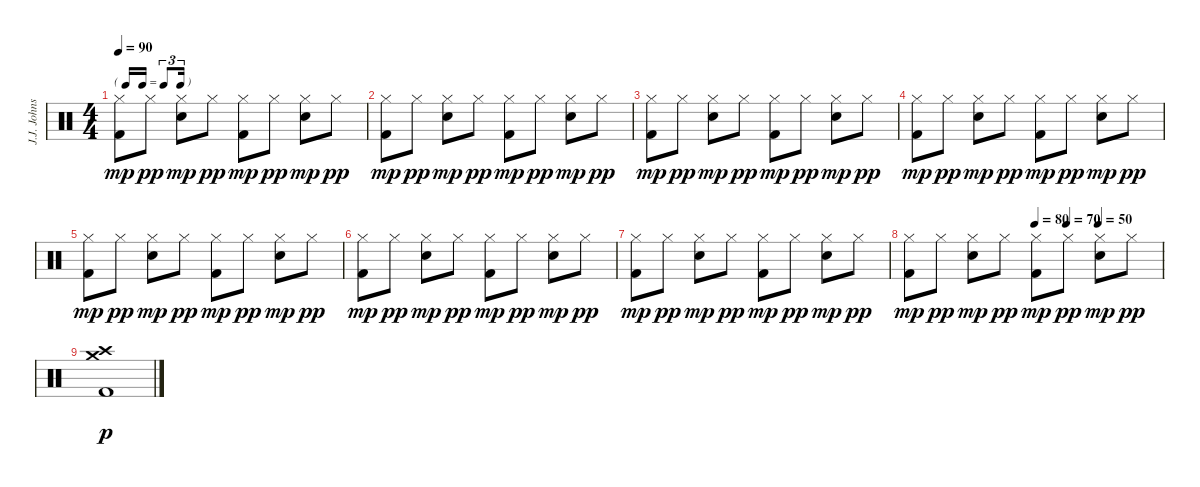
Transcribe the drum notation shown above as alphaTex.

\track ("J.J. Johnson" "J.J. Johns") {instrument percussion}
\staff {score}
\articulation defaults
\ts (4 4)
\tf triplet16th
\tempo 90
\clef neutral
\ks c
("Hi-Hat (closed)" "Kick (hit) 2").8{dy mp} "Hi-Hat (closed)".8{dy pp} ("Hi-Hat (closed)" "Electric Snare (hit)").8{dy mp} "Hi-Hat (closed)".8{dy pp} ("Hi-Hat (closed)" "Kick (hit) 2").8{dy mp} "Hi-Hat (closed)".8{dy pp} ("Hi-Hat (closed)" "Electric Snare (hit)").8{dy mp} "Hi-Hat (closed)".8{dy pp} |
("Hi-Hat (closed)" "Kick (hit) 2").8{dy mp} "Hi-Hat (closed)".8{dy pp} ("Hi-Hat (closed)" "Electric Snare (hit)").8{dy mp} "Hi-Hat (closed)".8{dy pp} ("Hi-Hat (closed)" "Kick (hit) 2").8{dy mp} "Hi-Hat (closed)".8{dy pp} ("Hi-Hat (closed)" "Electric Snare (hit)").8{dy mp} "Hi-Hat (closed)".8{dy pp} |
("Hi-Hat (closed)" "Kick (hit) 2").8{dy mp} "Hi-Hat (closed)".8{dy pp} ("Hi-Hat (closed)" "Electric Snare (hit)").8{dy mp} "Hi-Hat (closed)".8{dy pp} ("Hi-Hat (closed)" "Kick (hit) 2").8{dy mp} "Hi-Hat (closed)".8{dy pp} ("Hi-Hat (closed)" "Electric Snare (hit)").8{dy mp} "Hi-Hat (closed)".8{dy pp} |
("Hi-Hat (closed)" "Kick (hit) 2").8{dy mp} "Hi-Hat (closed)".8{dy pp} ("Hi-Hat (closed)" "Electric Snare (hit)").8{dy mp} "Hi-Hat (closed)".8{dy pp} ("Hi-Hat (closed)" "Kick (hit) 2").8{dy mp} "Hi-Hat (closed)".8{dy pp} ("Hi-Hat (closed)" "Electric Snare (hit)").8{dy mp} "Hi-Hat (closed)".8{dy pp} |
("Hi-Hat (closed)" "Kick (hit) 2").8{dy mp} "Hi-Hat (closed)".8{dy pp} ("Hi-Hat (closed)" "Electric Snare (hit)").8{dy mp} "Hi-Hat (closed)".8{dy pp} ("Hi-Hat (closed)" "Kick (hit) 2").8{dy mp} "Hi-Hat (closed)".8{dy pp} ("Hi-Hat (closed)" "Electric Snare (hit)").8{dy mp} "Hi-Hat (closed)".8{dy pp} |
("Hi-Hat (closed)" "Kick (hit) 2").8{dy mp} "Hi-Hat (closed)".8{dy pp} ("Hi-Hat (closed)" "Electric Snare (hit)").8{dy mp} "Hi-Hat (closed)".8{dy pp} ("Hi-Hat (closed)" "Kick (hit) 2").8{dy mp} "Hi-Hat (closed)".8{dy pp} ("Hi-Hat (closed)" "Electric Snare (hit)").8{dy mp} "Hi-Hat (closed)".8{dy pp} |
("Hi-Hat (closed)" "Kick (hit) 2").8{dy mp} "Hi-Hat (closed)".8{dy pp} ("Hi-Hat (closed)" "Electric Snare (hit)").8{dy mp} "Hi-Hat (closed)".8{dy pp} ("Hi-Hat (closed)" "Kick (hit) 2").8{dy mp} "Hi-Hat (closed)".8{dy pp} ("Hi-Hat (closed)" "Electric Snare (hit)").8{dy mp} "Hi-Hat (closed)".8{dy pp} |
\tempo (80 0.5)
\tempo (70 0.625)
\tempo (50 0.75)
("Hi-Hat (closed)" "Kick (hit) 2").8{dy mp} "Hi-Hat (closed)".8{dy pp} ("Hi-Hat (closed)" "Electric Snare (hit)").8{dy mp} "Hi-Hat (closed)".8{dy pp} ("Hi-Hat (closed)" "Kick (hit) 2").8{dy mp} "Hi-Hat (closed)".8{dy pp} ("Hi-Hat (closed)" "Electric Snare (hit)").8{dy mp} "Hi-Hat (closed)".8{dy pp} |
("Crash high (hit)" "Crash medium (hit)" "Kick (hit) 2").1{dy p}
